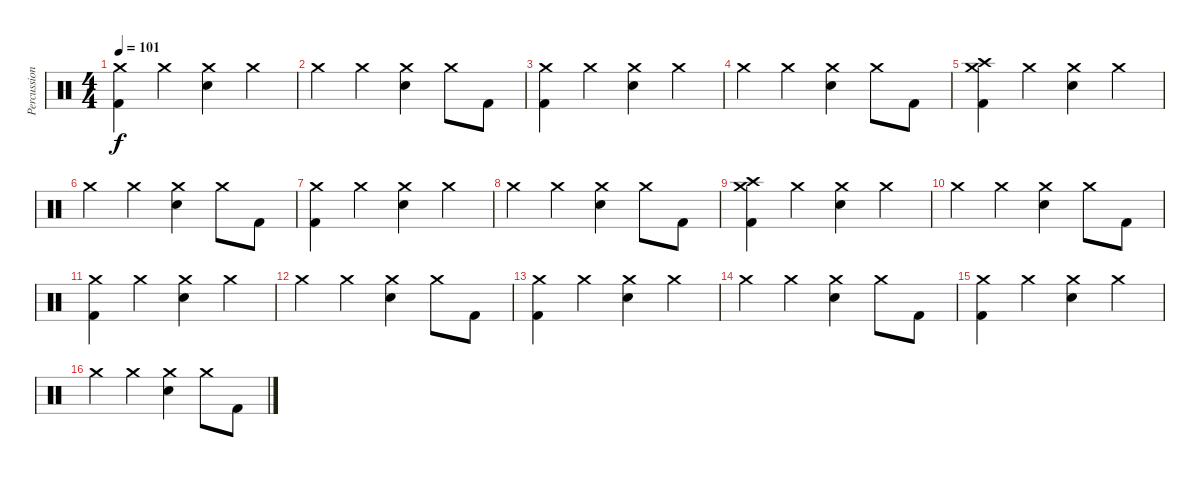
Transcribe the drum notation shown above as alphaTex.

\track ("Percussion" "Percussion") {instrument percussion}
\staff {score}
\articulation defaults
\ts (4 4)
\tempo 101
\clef neutral
\ks c
("Crash medium (hit)" "Kick (hit) 2").4{dy f} "Crash medium (hit)".4 ("Crash medium (hit)" "Electric Snare (hit)").4 "Crash medium (hit)".4 |
"Crash medium (hit)".4 "Crash medium (hit)".4 ("Crash medium (hit)" "Electric Snare (hit)").4 "Crash medium (hit)".8 "Kick (hit) 2".8 |
("Crash medium (hit)" "Kick (hit) 2").4 "Crash medium (hit)".4 ("Crash medium (hit)" "Electric Snare (hit)").4 "Crash medium (hit)".4 |
"Crash medium (hit)".4 "Crash medium (hit)".4 ("Crash medium (hit)" "Electric Snare (hit)").4 "Crash medium (hit)".8 "Kick (hit) 2".8 |
("Crash high (hit)" "Crash medium (hit)" "Kick (hit) 2").4 "Crash medium (hit)".4 ("Crash medium (hit)" "Electric Snare (hit)").4 "Crash medium (hit)".4 |
"Crash medium (hit)".4 "Crash medium (hit)".4 ("Crash medium (hit)" "Electric Snare (hit)").4 "Crash medium (hit)".8 "Kick (hit) 2".8 |
("Crash medium (hit)" "Kick (hit) 2").4 "Crash medium (hit)".4 ("Crash medium (hit)" "Electric Snare (hit)").4 "Crash medium (hit)".4 |
"Crash medium (hit)".4 "Crash medium (hit)".4 ("Crash medium (hit)" "Electric Snare (hit)").4 "Crash medium (hit)".8 "Kick (hit) 2".8 |
("Crash high (hit)" "Crash medium (hit)" "Kick (hit) 2").4 "Crash medium (hit)".4 ("Crash medium (hit)" "Electric Snare (hit)").4 "Crash medium (hit)".4 |
"Crash medium (hit)".4 "Crash medium (hit)".4 ("Crash medium (hit)" "Electric Snare (hit)").4 "Crash medium (hit)".8 "Kick (hit) 2".8 |
("Crash medium (hit)" "Kick (hit) 2").4 "Crash medium (hit)".4 ("Crash medium (hit)" "Electric Snare (hit)").4 "Crash medium (hit)".4 |
"Crash medium (hit)".4 "Crash medium (hit)".4 ("Crash medium (hit)" "Electric Snare (hit)").4 "Crash medium (hit)".8 "Kick (hit) 2".8 |
("Crash medium (hit)" "Kick (hit) 2").4 "Crash medium (hit)".4 ("Crash medium (hit)" "Electric Snare (hit)").4 "Crash medium (hit)".4 |
"Crash medium (hit)".4 "Crash medium (hit)".4 ("Crash medium (hit)" "Electric Snare (hit)").4 "Crash medium (hit)".8 "Kick (hit) 2".8 |
("Crash medium (hit)" "Kick (hit) 2").4 "Crash medium (hit)".4 ("Crash medium (hit)" "Electric Snare (hit)").4 "Crash medium (hit)".4 |
"Crash medium (hit)".4 "Crash medium (hit)".4 ("Crash medium (hit)" "Electric Snare (hit)").4 "Crash medium (hit)".8 "Kick (hit) 2".8
